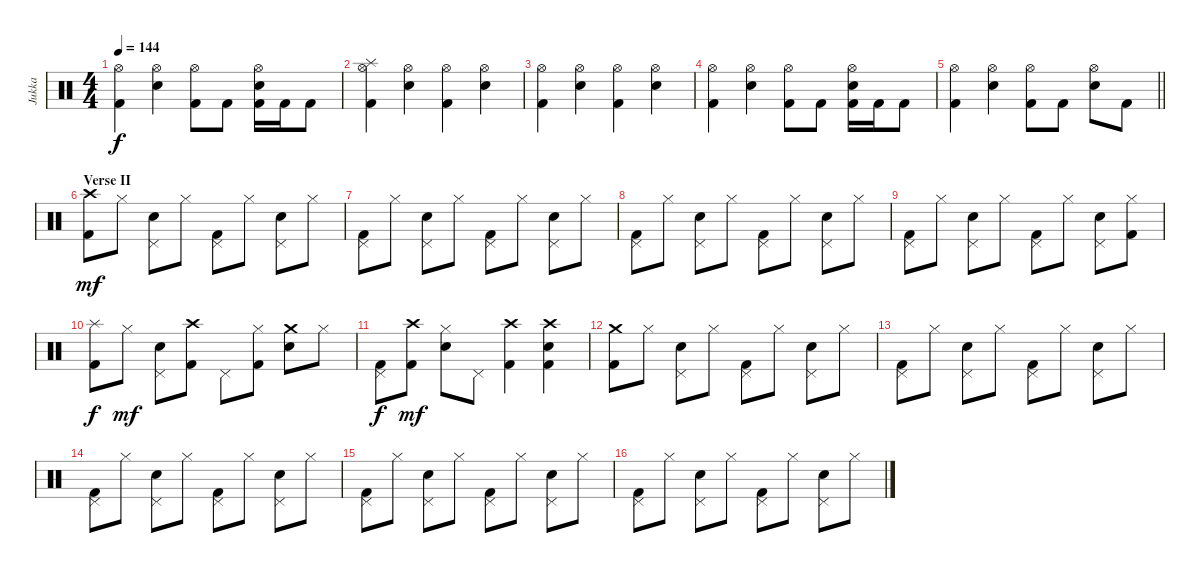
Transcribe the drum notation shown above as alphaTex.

\track ("Jukka" "Jukka") {instrument percussion}
\staff {score}
\articulation defaults
\ts (4 4)
\tempo 144
\clef neutral
\ks c
("Hi-Hat (open)" "Kick (hit) 2").4{dy f} ("Hi-Hat (open)" "Electric Snare (hit)").4 ("Hi-Hat (open)" "Kick (hit) 2").8 "Kick (hit) 2".8 ("Hi-Hat (open)" "Electric Snare (hit)" "Kick (hit) 2").16 "Kick (hit) 2".16 "Kick (hit) 2".8 |
("Hi-Hat (open)" "Splash (hit)" "Kick (hit) 2").4 ("Hi-Hat (open)" "Electric Snare (hit)").4 ("Hi-Hat (open)" "Kick (hit) 2").4 ("Hi-Hat (open)" "Electric Snare (hit)").4 |
("Hi-Hat (open)" "Kick (hit) 2").4 ("Hi-Hat (open)" "Electric Snare (hit)").4 ("Hi-Hat (open)" "Kick (hit) 2").4 ("Hi-Hat (open)" "Electric Snare (hit)").4 |
("Hi-Hat (open)" "Kick (hit) 2").4 ("Hi-Hat (open)" "Electric Snare (hit)").4 ("Hi-Hat (open)" "Kick (hit) 2").8 "Kick (hit) 2".8 ("Hi-Hat (open)" "Electric Snare (hit)" "Kick (hit) 2").16 "Kick (hit) 2".16 "Kick (hit) 2".8 |
\barLineRight lightlight
("Hi-Hat (open)" "Kick (hit) 2").4 ("Hi-Hat (open)" "Electric Snare (hit)").4 ("Hi-Hat (open)" "Kick (hit) 2").8 "Kick (hit) 2".8 ("Hi-Hat (open)" "Electric Snare (hit)").8 "Kick (hit) 2".8 |
\section ("" "Verse II")
("Crash high (hit)" "Kick (hit) 2").8{dy mf} "Hi-Hat (closed)".8 ("Pedal Hi-Hat (hit)" "Electric Snare (hit)").8 "Hi-Hat (closed)".8 ("Pedal Hi-Hat (hit)" "Kick (hit) 2").8 "Hi-Hat (closed)".8 ("Pedal Hi-Hat (hit)" "Electric Snare (hit)").8 "Hi-Hat (closed)".8 |
("Pedal Hi-Hat (hit)" "Kick (hit) 2").8 "Hi-Hat (closed)".8 ("Pedal Hi-Hat (hit)" "Electric Snare (hit)").8 "Hi-Hat (closed)".8 ("Pedal Hi-Hat (hit)" "Kick (hit) 2").8 "Hi-Hat (closed)".8 ("Pedal Hi-Hat (hit)" "Electric Snare (hit)").8 "Hi-Hat (closed)".8 |
("Pedal Hi-Hat (hit)" "Kick (hit) 2").8 "Hi-Hat (closed)".8 ("Pedal Hi-Hat (hit)" "Electric Snare (hit)").8 "Hi-Hat (closed)".8 ("Pedal Hi-Hat (hit)" "Kick (hit) 2").8 "Hi-Hat (closed)".8 ("Pedal Hi-Hat (hit)" "Electric Snare (hit)").8 "Hi-Hat (closed)".8 |
("Pedal Hi-Hat (hit)" "Kick (hit) 2").8 "Hi-Hat (closed)".8 ("Pedal Hi-Hat (hit)" "Electric Snare (hit)").8 "Hi-Hat (closed)".8 ("Pedal Hi-Hat (hit)" "Kick (hit) 2").8 "Hi-Hat (closed)".8 ("Pedal Hi-Hat (hit)" "Electric Snare (hit)").8 ("Hi-Hat (closed)" "Kick (hit) 2").8 |
("Splash (hit)" "Kick (hit) 2").8{dy f} "Hi-Hat (closed)".8{dy mf} ("Pedal Hi-Hat (hit)" "Electric Snare (hit)").8 ("Crash high (hit)" "Kick (hit) 2").8 "Pedal Hi-Hat (hit)".8 ("Hi-Hat (closed)" "Kick (hit) 2").8 ("Crash medium (hit)" "Electric Snare (hit)").8 "Hi-Hat (closed)".8 |
("Pedal Hi-Hat (hit)" "Kick (hit) 2").8{dy f} ("Crash high (hit)" "Kick (hit) 2").8{dy mf} ("Hi-Hat (closed)" "Electric Snare (hit)").8 "Pedal Hi-Hat (hit)".8 ("Crash high (hit)" "Kick (hit) 2").4 ("Crash high (hit)" "Electric Snare (hit)" "Kick (hit) 2").4 |
("Crash medium (hit)" "Kick (hit) 2").8 "Hi-Hat (closed)".8 ("Pedal Hi-Hat (hit)" "Electric Snare (hit)").8 "Hi-Hat (closed)".8 ("Pedal Hi-Hat (hit)" "Kick (hit) 2").8 "Hi-Hat (closed)".8 ("Pedal Hi-Hat (hit)" "Electric Snare (hit)").8 "Hi-Hat (closed)".8 |
("Pedal Hi-Hat (hit)" "Kick (hit) 2").8 "Hi-Hat (closed)".8 ("Pedal Hi-Hat (hit)" "Electric Snare (hit)").8 "Hi-Hat (closed)".8 ("Pedal Hi-Hat (hit)" "Kick (hit) 2").8 "Hi-Hat (closed)".8 ("Pedal Hi-Hat (hit)" "Electric Snare (hit)").8 "Hi-Hat (closed)".8 |
("Pedal Hi-Hat (hit)" "Kick (hit) 2").8 "Hi-Hat (closed)".8 ("Pedal Hi-Hat (hit)" "Electric Snare (hit)").8 "Hi-Hat (closed)".8 ("Pedal Hi-Hat (hit)" "Kick (hit) 2").8 "Hi-Hat (closed)".8 ("Pedal Hi-Hat (hit)" "Electric Snare (hit)").8 "Hi-Hat (closed)".8 |
("Pedal Hi-Hat (hit)" "Kick (hit) 2").8 "Hi-Hat (closed)".8 ("Pedal Hi-Hat (hit)" "Electric Snare (hit)").8 "Hi-Hat (closed)".8 ("Pedal Hi-Hat (hit)" "Kick (hit) 2").8 "Hi-Hat (closed)".8 ("Pedal Hi-Hat (hit)" "Electric Snare (hit)").8 "Hi-Hat (closed)".8 |
("Pedal Hi-Hat (hit)" "Kick (hit) 2").8 "Hi-Hat (closed)".8 ("Pedal Hi-Hat (hit)" "Electric Snare (hit)").8 "Hi-Hat (closed)".8 ("Pedal Hi-Hat (hit)" "Kick (hit) 2").8 "Hi-Hat (closed)".8 ("Pedal Hi-Hat (hit)" "Electric Snare (hit)").8 "Hi-Hat (closed)".8
